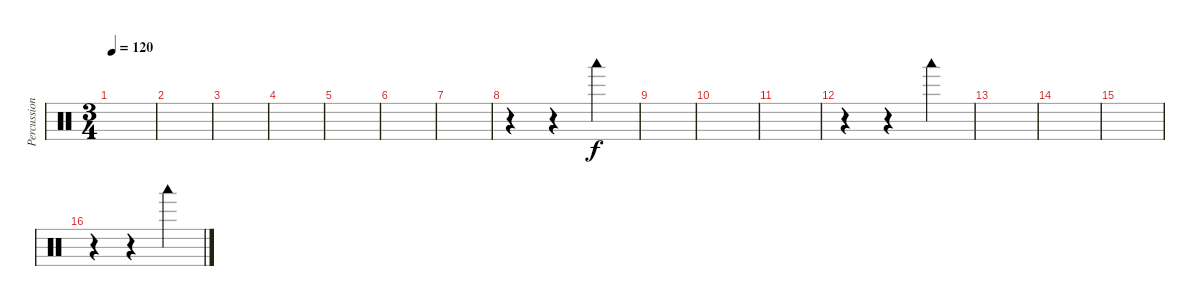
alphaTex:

\track ("Percussion" "Percussion") {instrument percussion}
\staff {score}
\articulation defaults
\ts (3 4)
\tempo 120
\clef neutral
\ks c
|
|
|
|
|
|
|
r.4 r.4 "Woodblock low (hit)".4 |
|
|
|
r.4 r.4 "Woodblock low (hit)".4 |
|
|
|
r.4 r.4 "Woodblock low (hit)".4
